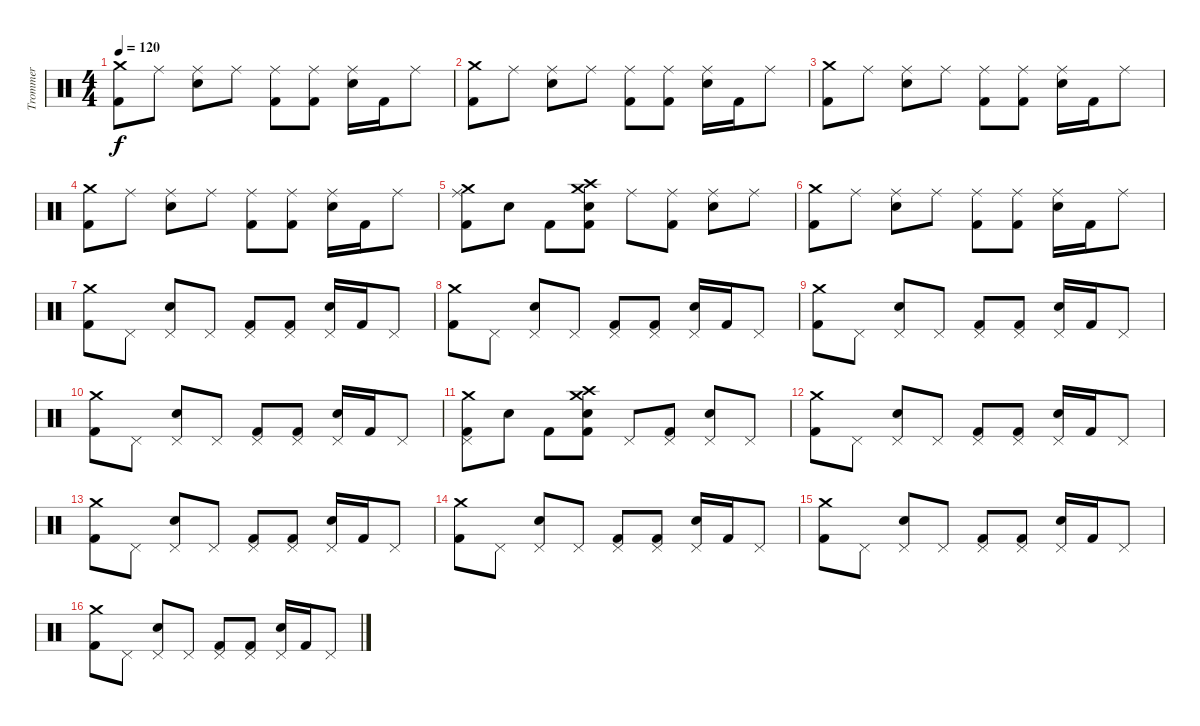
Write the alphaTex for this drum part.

\track ("Trommer" "Trommer") {instrument percussion}
\staff {score}
\articulation defaults
\ts (4 4)
\tempo 120
\clef neutral
\ks c
("Crash medium (hit)" "Kick (hit) 2").8{dy f} "Ride (middle)".8 ("Ride (middle)" "Snare (hit) 2").8 "Ride (middle)".8 ("Kick (hit) 2" "Ride (middle)").8 ("Ride (middle)" "Kick (hit) 2").8 ("Ride (middle)" "Snare (hit) 2").16 "Kick (hit) 2".16 "Ride (middle)".8 |
("Crash medium (hit)" "Kick (hit) 2").8 "Ride (middle)".8 ("Ride (middle)" "Snare (hit) 2").8 "Ride (middle)".8 ("Ride (middle)" "Kick (hit) 2").8 ("Ride (middle)" "Kick (hit) 2").8 ("Ride (middle)" "Snare (hit) 2").16 "Kick (hit) 2".16 "Ride (middle)".8 |
("Crash medium (hit)" "Kick (hit) 2").8 "Ride (middle)".8 ("Ride (middle)" "Snare (hit) 2").8 "Ride (middle)".8 ("Ride (middle)" "Kick (hit) 2").8 ("Ride (middle)" "Kick (hit) 2").8 ("Ride (middle)" "Snare (hit) 2").16 "Kick (hit) 2".16 "Ride (middle)".8 |
("Crash medium (hit)" "Kick (hit) 2").8 "Ride (middle)".8 ("Ride (middle)" "Snare (hit) 2").8 "Ride (middle)".8 ("Ride (middle)" "Kick (hit) 2").8 ("Ride (middle)" "Kick (hit) 2").8 ("Ride (middle)" "Snare (hit) 2").16 "Kick (hit) 2".16 "Ride (middle)".8 |
("Crash medium (hit)" "Ride (middle)" "Kick (hit) 2").8 "Snare (hit) 2".8 "Kick (hit) 2".8 ("Crash high (hit)" "Crash medium (hit)" "Kick (hit) 2" "Snare (hit) 2").8 "Ride (middle)".8 ("Ride (middle)" "Kick (hit) 2").8 ("Ride (middle)" "Snare (hit) 2").8 "Ride (middle)".8 |
("Crash medium (hit)" "Kick (hit) 2").8 "Ride (middle)".8 ("Ride (middle)" "Snare (hit) 2").8 "Ride (middle)".8 ("Ride (middle)" "Kick (hit) 2").8 ("Ride (middle)" "Kick (hit) 2").8 ("Ride (middle)" "Snare (hit) 2").16 "Kick (hit) 2".16 "Ride (middle)".8 |
("Crash medium (hit)" "Kick (hit) 2").8 "Pedal Hi-Hat (hit)".8 ("Pedal Hi-Hat (hit)" "Snare (hit) 2").8 "Pedal Hi-Hat (hit)".8 ("Pedal Hi-Hat (hit)" "Kick (hit) 2").8 ("Pedal Hi-Hat (hit)" "Kick (hit) 2").8 ("Pedal Hi-Hat (hit)" "Snare (hit) 2").16 "Kick (hit) 2".16 "Pedal Hi-Hat (hit)".8 |
("Kick (hit) 2" "Crash medium (hit)").8 "Pedal Hi-Hat (hit)".8 ("Pedal Hi-Hat (hit)" "Snare (hit) 2").8 "Pedal Hi-Hat (hit)".8 ("Pedal Hi-Hat (hit)" "Kick (hit) 2").8 ("Pedal Hi-Hat (hit)" "Kick (hit) 2").8 ("Pedal Hi-Hat (hit)" "Snare (hit) 2").16 "Kick (hit) 2".16 "Pedal Hi-Hat (hit)".8 |
("Crash medium (hit)" "Kick (hit) 2").8 "Pedal Hi-Hat (hit)".8 ("Pedal Hi-Hat (hit)" "Snare (hit) 2").8 "Pedal Hi-Hat (hit)".8 ("Pedal Hi-Hat (hit)" "Kick (hit) 2").8 ("Pedal Hi-Hat (hit)" "Kick (hit) 2").8 ("Pedal Hi-Hat (hit)" "Snare (hit) 2").16 "Kick (hit) 2".16 "Pedal Hi-Hat (hit)".8 |
("Crash medium (hit)" "Kick (hit) 2").8 "Pedal Hi-Hat (hit)".8 ("Pedal Hi-Hat (hit)" "Snare (hit) 2").8 "Pedal Hi-Hat (hit)".8 ("Pedal Hi-Hat (hit)" "Kick (hit) 2").8 ("Pedal Hi-Hat (hit)" "Kick (hit) 2").8 ("Pedal Hi-Hat (hit)" "Snare (hit) 2").16 "Kick (hit) 2".16 "Pedal Hi-Hat (hit)".8 |
("Crash medium (hit)" "Kick (hit) 2" "Pedal Hi-Hat (hit)").8 "Snare (hit) 2".8 "Kick (hit) 2".8 ("Crash high (hit)" "Crash medium (hit)" "Kick (hit) 2" "Snare (hit) 2").8 "Pedal Hi-Hat (hit)".8 ("Pedal Hi-Hat (hit)" "Kick (hit) 2").8 ("Pedal Hi-Hat (hit)" "Snare (hit) 2").8 "Pedal Hi-Hat (hit)".8 |
("Crash medium (hit)" "Kick (hit) 2").8 "Pedal Hi-Hat (hit)".8 ("Pedal Hi-Hat (hit)" "Snare (hit) 2").8 "Pedal Hi-Hat (hit)".8 ("Pedal Hi-Hat (hit)" "Kick (hit) 2").8 ("Pedal Hi-Hat (hit)" "Kick (hit) 2").8 ("Pedal Hi-Hat (hit)" "Snare (hit) 2").16 "Kick (hit) 2".16 "Pedal Hi-Hat (hit)".8 |
("Kick (hit) 2" "Crash medium (hit)").8 "Pedal Hi-Hat (hit)".8 ("Pedal Hi-Hat (hit)" "Snare (hit) 2").8 "Pedal Hi-Hat (hit)".8 ("Pedal Hi-Hat (hit)" "Kick (hit) 2").8 ("Pedal Hi-Hat (hit)" "Kick (hit) 2").8 ("Pedal Hi-Hat (hit)" "Snare (hit) 2").16 "Kick (hit) 2".16 "Pedal Hi-Hat (hit)".8 |
("Kick (hit) 2" "Crash medium (hit)").8 "Pedal Hi-Hat (hit)".8 ("Pedal Hi-Hat (hit)" "Snare (hit) 2").8 "Pedal Hi-Hat (hit)".8 ("Pedal Hi-Hat (hit)" "Kick (hit) 2").8 ("Pedal Hi-Hat (hit)" "Kick (hit) 2").8 ("Pedal Hi-Hat (hit)" "Snare (hit) 2").16 "Kick (hit) 2".16 "Pedal Hi-Hat (hit)".8 |
("Kick (hit) 2" "Crash medium (hit)").8 "Pedal Hi-Hat (hit)".8 ("Pedal Hi-Hat (hit)" "Snare (hit) 2").8 "Pedal Hi-Hat (hit)".8 ("Pedal Hi-Hat (hit)" "Kick (hit) 2").8 ("Pedal Hi-Hat (hit)" "Kick (hit) 2").8 ("Pedal Hi-Hat (hit)" "Snare (hit) 2").16 "Kick (hit) 2".16 "Pedal Hi-Hat (hit)".8 |
("Kick (hit) 2" "Crash medium (hit)").8 "Pedal Hi-Hat (hit)".8 ("Pedal Hi-Hat (hit)" "Snare (hit) 2").8 "Pedal Hi-Hat (hit)".8 ("Pedal Hi-Hat (hit)" "Kick (hit) 2").8 ("Pedal Hi-Hat (hit)" "Kick (hit) 2").8 ("Pedal Hi-Hat (hit)" "Snare (hit) 2").16 "Kick (hit) 2".16 "Pedal Hi-Hat (hit)".8
